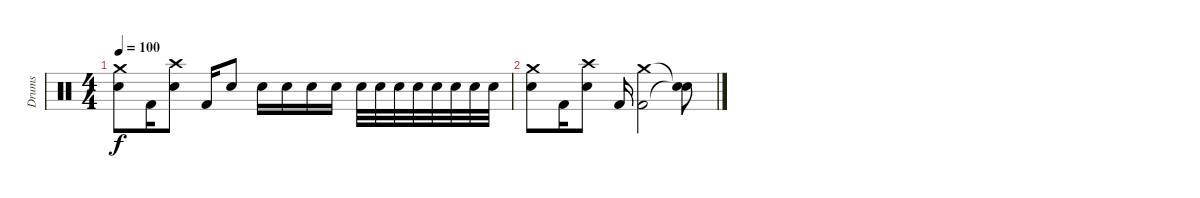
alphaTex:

\track ("Drums" "Drums") {instrument percussion}
\staff {score}
\articulation defaults
\ts (4 4)
\tempo 100
\clef neutral
\ks c
("Crash medium (hit)" "Snare (hit) 2").8{dy f} "Kick (hit) 2".16 ("Crash high (hit)" "Snare (hit) 2").8 "Kick (hit) 2".16 "Snare (hit) 2".8 "Snare (hit) 2".16 "Snare (hit) 2".16 "Snare (hit) 2".16 "Snare (hit) 2".16 "Snare (hit) 2".32 "Snare (hit) 2".32 "Snare (hit) 2".32 "Snare (hit) 2".32 "Snare (hit) 2".32 "Snare (hit) 2".32 "Snare (hit) 2".32 "Snare (hit) 2".32 |
("Crash medium (hit)" "Snare (hit) 2").8 "Kick (hit) 2".16 ("Crash high (hit)" "Snare (hit) 2").8 "Kick (hit) 2".16 ("Crash medium (hit)" "Kick (hit) 2").2 ("Snare (hit)"{t} "Snare (hit)"{t}).8
